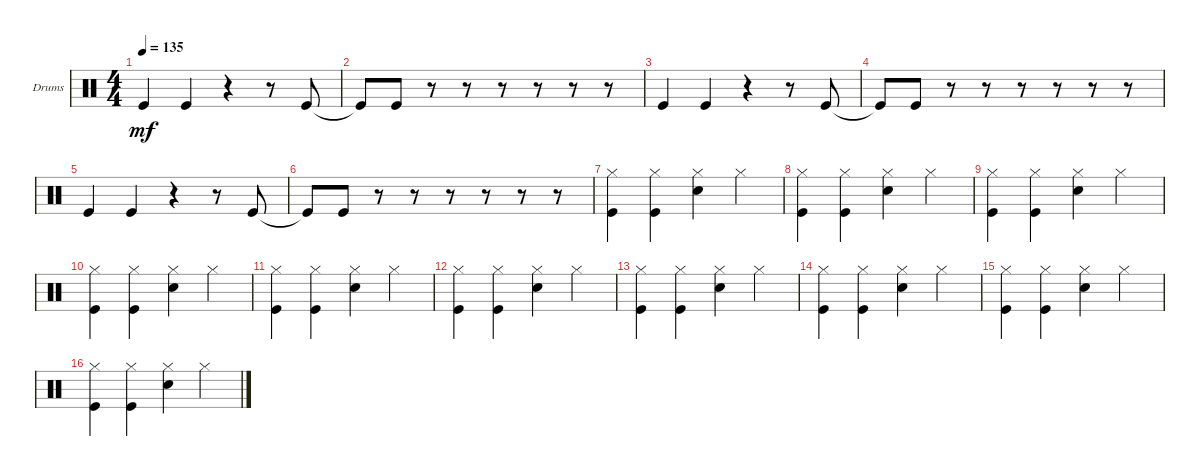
\defaultSystemsLayout 4
\bracketExtendMode groupsimilarinstruments
\firstSystemTrackNameOrientation horizontal
\otherSystemsTrackNameOrientation horizontal
\track ("Drumkit" "Drums") {instrument percussion}
\staff {score}
\articulation defaults
\ts (4 4)
\tempo 135
\clef neutral
\ks c "Kick (hit)".4{dy mf} "Kick (hit)".4
r.4 r.8 "Kick (hit)".8 |
"Kick (hit)"{t}.8 "Kick (hit)".8 r.8 r.8 r.8 r.8 r.8 r.8 |
"Kick (hit)".4 "Kick (hit)".4 r.4 r.8 "Kick (hit)".8 |
"Kick (hit)"{t}.8 "Kick (hit)".8 r.8 r.8 r.8 r.8 r.8 r.8 |
"Kick (hit)".4 "Kick (hit)".4 r.4 r.8 "Kick (hit)".8 |
"Kick (hit)"{t}.8 "Kick (hit)".8 r.8 r.8 r.8 r.8 r.8 r.8 |
("Kick (hit)" "Hi-Hat (closed)").4 ("Hi-Hat (closed)" "Kick (hit)").4 ("Hi-Hat (closed)" "Snare (hit) 2").4 "Hi-Hat (closed)".4 |
("Kick (hit)" "Hi-Hat (closed)").4 ("Hi-Hat (closed)" "Kick (hit)").4 ("Hi-Hat (closed)" "Snare (hit) 2").4 "Hi-Hat (closed)".4 |
("Kick (hit)" "Hi-Hat (closed)").4 ("Hi-Hat (closed)" "Kick (hit)").4 ("Hi-Hat (closed)" "Snare (hit) 2").4 "Hi-Hat (closed)".4 |
("Kick (hit)" "Hi-Hat (closed)").4 ("Hi-Hat (closed)" "Kick (hit)").4 ("Hi-Hat (closed)" "Snare (hit) 2").4 "Hi-Hat (closed)".4 |
("Kick (hit)" "Hi-Hat (closed)").4 ("Hi-Hat (closed)" "Kick (hit)").4 ("Hi-Hat (closed)" "Snare (hit) 2").4 "Hi-Hat (closed)".4 |
("Kick (hit)" "Hi-Hat (closed)").4 ("Hi-Hat (closed)" "Kick (hit)").4 ("Hi-Hat (closed)" "Snare (hit) 2").4 "Hi-Hat (closed)".4 |
("Kick (hit)" "Hi-Hat (closed)").4 ("Hi-Hat (closed)" "Kick (hit)").4 ("Hi-Hat (closed)" "Snare (hit) 2").4 "Hi-Hat (closed)".4 |
("Kick (hit)" "Hi-Hat (closed)").4 ("Hi-Hat (closed)" "Kick (hit)").4 ("Hi-Hat (closed)" "Snare (hit) 2").4 "Hi-Hat (closed)".4 |
("Kick (hit)" "Hi-Hat (closed)").4 ("Hi-Hat (closed)" "Kick (hit)").4 ("Hi-Hat (closed)" "Snare (hit) 2").4 "Hi-Hat (closed)".4 |
("Kick (hit)" "Hi-Hat (closed)").4 ("Hi-Hat (closed)" "Kick (hit)").4 ("Hi-Hat (closed)" "Snare (hit) 2").4 "Hi-Hat (closed)".4
